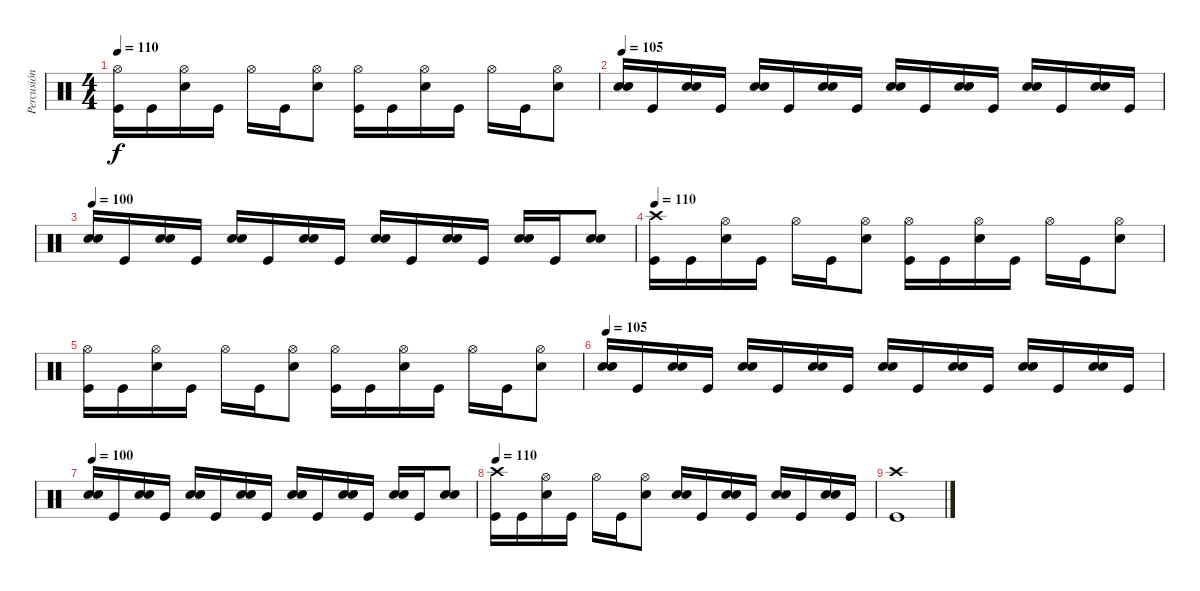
\track ("Percusión" "Percusión") {instrument percussion}
\staff {score}
\articulation defaults
\ts (4 4)
\tempo 110
\clef neutral
\ks c
("Hi-Hat (open)" "Kick (hit)").16{dy f} "Kick (hit)".16 ("Hi-Hat (open)" "Snare (hit) 2").16 "Kick (hit)".16 "Hi-Hat (open)".16 "Kick (hit)".16 ("Hi-Hat (open)" "Snare (hit) 2").8 ("Hi-Hat (open)" "Kick (hit)").16 "Kick (hit)".16 ("Hi-Hat (open)" "Snare (hit) 2").16 "Kick (hit)".16 "Hi-Hat (open)".16 "Kick (hit)".16 ("Hi-Hat (open)" "Snare (hit) 2").8 |
\tempo 105
("Snare (hit) 2" "Snare (hit) 2").16 "Kick (hit)".16 ("Snare (hit) 2" "Snare (hit) 2").16 "Kick (hit)".16 ("Snare (hit) 2" "Snare (hit) 2").16 "Kick (hit)".16 ("Snare (hit) 2" "Snare (hit) 2").16 "Kick (hit)".16 ("Snare (hit) 2" "Snare (hit) 2").16 "Kick (hit)".16 ("Snare (hit) 2" "Snare (hit) 2").16 "Kick (hit)".16 ("Snare (hit) 2" "Snare (hit) 2").16 "Kick (hit)".16 ("Snare (hit) 2" "Snare (hit) 2").16 "Kick (hit)".16 |
\tempo 100
("Snare (hit) 2" "Snare (hit) 2").16 "Kick (hit)".16 ("Snare (hit) 2" "Snare (hit) 2").16 "Kick (hit)".16 ("Snare (hit) 2" "Snare (hit) 2").16 "Kick (hit)".16 ("Snare (hit) 2" "Snare (hit) 2").16 "Kick (hit)".16 ("Snare (hit) 2" "Snare (hit) 2").16 "Kick (hit)".16 ("Snare (hit) 2" "Snare (hit) 2").16 "Kick (hit)".16 ("Snare (hit) 2" "Snare (hit) 2").16 "Kick (hit)".16 ("Snare (hit) 2" "Snare (hit) 2").8 |
\tempo 110
("Crash high (hit)" "Kick (hit)").16 "Kick (hit)".16 ("Hi-Hat (open)" "Snare (hit) 2").16 "Kick (hit)".16 "Hi-Hat (open)".16 "Kick (hit)".16 ("Hi-Hat (open)" "Snare (hit) 2").8 ("Hi-Hat (open)" "Kick (hit)").16 "Kick (hit)".16 ("Hi-Hat (open)" "Snare (hit) 2").16 "Kick (hit)".16 "Hi-Hat (open)".16 "Kick (hit)".16 ("Hi-Hat (open)" "Snare (hit) 2").8 |
("Hi-Hat (open)" "Kick (hit)").16 "Kick (hit)".16 ("Hi-Hat (open)" "Snare (hit) 2").16 "Kick (hit)".16 "Hi-Hat (open)".16 "Kick (hit)".16 ("Hi-Hat (open)" "Snare (hit) 2").8 ("Hi-Hat (open)" "Kick (hit)").16 "Kick (hit)".16 ("Hi-Hat (open)" "Snare (hit) 2").16 "Kick (hit)".16 "Hi-Hat (open)".16 "Kick (hit)".16 ("Hi-Hat (open)" "Snare (hit) 2").8 |
\tempo 105
("Snare (hit) 2" "Snare (hit) 2").16 "Kick (hit)".16 ("Snare (hit) 2" "Snare (hit) 2").16 "Kick (hit)".16 ("Snare (hit) 2" "Snare (hit) 2").16 "Kick (hit)".16 ("Snare (hit) 2" "Snare (hit) 2").16 "Kick (hit)".16 ("Snare (hit) 2" "Snare (hit) 2").16 "Kick (hit)".16 ("Snare (hit) 2" "Snare (hit) 2").16 "Kick (hit)".16 ("Snare (hit) 2" "Snare (hit) 2").16 "Kick (hit)".16 ("Snare (hit) 2" "Snare (hit) 2").16 "Kick (hit)".16 |
\tempo 100
("Snare (hit) 2" "Snare (hit) 2").16 "Kick (hit)".16 ("Snare (hit) 2" "Snare (hit) 2").16 "Kick (hit)".16 ("Snare (hit) 2" "Snare (hit) 2").16 "Kick (hit)".16 ("Snare (hit) 2" "Snare (hit) 2").16 "Kick (hit)".16 ("Snare (hit) 2" "Snare (hit) 2").16 "Kick (hit)".16 ("Snare (hit) 2" "Snare (hit) 2").16 "Kick (hit)".16 ("Snare (hit) 2" "Snare (hit) 2").16 "Kick (hit)".16 ("Snare (hit) 2" "Snare (hit) 2").8 |
\tempo 110
("Crash high (hit)" "Kick (hit)").16 "Kick (hit)".16 ("Hi-Hat (open)" "Snare (hit) 2").16 "Kick (hit)".16 "Hi-Hat (open)".16 "Kick (hit)".16 ("Hi-Hat (open)" "Snare (hit) 2").8 ("Snare (hit) 2" "Snare (hit) 2").16 "Kick (hit)".16 ("Snare (hit) 2" "Snare (hit) 2").16 "Kick (hit)".16 ("Snare (hit) 2" "Snare (hit) 2").16 "Kick (hit)".16 ("Snare (hit) 2" "Snare (hit) 2").16 "Kick (hit)".16 |
("Crash high (hit)" "Kick (hit)").1
